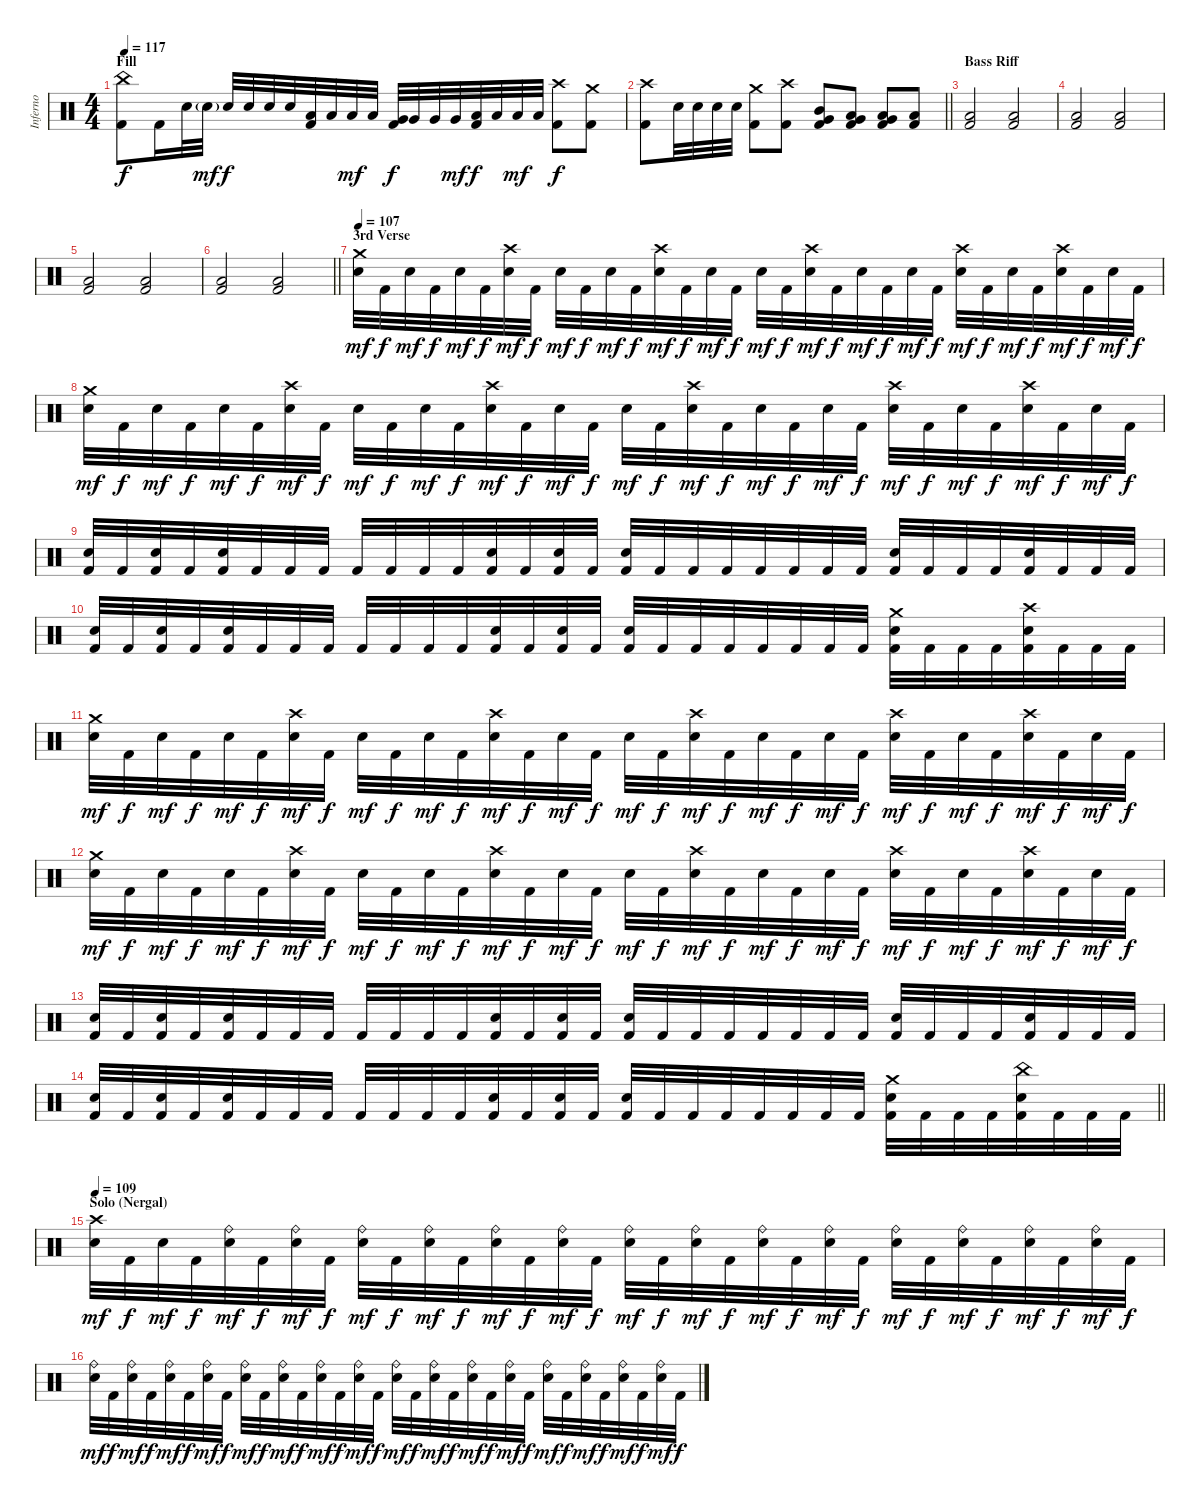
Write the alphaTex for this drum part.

\track ("Inferno" "Inferno") {instrument percussion}
\staff {score}
\articulation defaults
\ts (4 4)
\section ("" "Fill")
\tempo 117
\clef neutral
\ks c
("China (hit)" "Kick (hit) 2").8{dy f} "Kick (hit) 2".16 "Snare (hit) 2".32 "Snare (hit) 2"{g}.32{dy mf} "Snare (hit) 2".32{dy f} "Snare (hit) 2".32 "Snare (hit) 2".32 "Snare (hit) 2".32 ("Low Tom (hit)" "Kick (hit) 2").32 "Low Tom (hit)".32 "Low Tom (hit)".32{dy mf} "Low Tom (hit)".32 ("Very Low Tom (hit)" "Kick (hit) 2").32{dy f} "Very Low Tom (hit)".32 "Very Low Tom (hit)".32 "Very Low Tom (hit)".32{dy mf} ("Low Floor Tom (hit)" "Kick (hit) 2").32{dy f} "Low Floor Tom (hit)".32 "Low Floor Tom (hit)".32{dy mf} "Low Floor Tom (hit)".32 ("Crash high (hit)" "Kick (hit) 2").8{dy f} ("Crash medium (hit)" "Kick (hit) 2").8 |
\barLineRight lightlight
("Crash high (hit)" "Kick (hit) 2").8 "Snare (hit) 2".32 "Snare (hit) 2".32 "Snare (hit) 2".32 "Snare (hit) 2".32 ("Crash medium (hit)" "Kick (hit) 2").8 ("Crash high (hit)" "Kick (hit) 2").8 ("Mid Tom (hit)" "Very Low Tom (hit)" "Kick (hit) 2").8 ("Low Tom (hit)" "Very Low Tom (hit)" "Kick (hit) 2").8 ("Very Low Tom (hit)" "Low Floor Tom (hit)" "Kick (hit) 2").8 ("Low Floor Tom (hit)" "Kick (hit) 2").8 |
\section ("" "Bass Riff")
("Low Floor Tom (hit)" "Kick (hit) 2").2 ("Low Floor Tom (hit)" "Kick (hit) 2").2 |
("Low Floor Tom (hit)" "Kick (hit) 2").2 ("Low Floor Tom (hit)" "Kick (hit) 2").2 |
("Low Floor Tom (hit)" "Kick (hit) 2").2 ("Low Floor Tom (hit)" "Kick (hit) 2").2 |
\barLineRight lightlight
("Low Floor Tom (hit)" "Kick (hit) 2").2 ("Low Floor Tom (hit)" "Kick (hit) 2").2 |
\section ("" "3rd Verse")
\tempo 107
("Crash medium (hit)" "Snare (hit) 2").32{dy mf} "Kick (hit) 2".32{dy f} "Snare (hit) 2".32{dy mf} "Kick (hit) 2".32{dy f} "Snare (hit) 2".32{dy mf} "Kick (hit) 2".32{dy f} ("Crash high (hit)" "Snare (hit) 2").32{dy mf} "Kick (hit) 2".32{dy f} "Snare (hit) 2".32{dy mf} "Kick (hit) 2".32{dy f} "Snare (hit) 2".32{dy mf} "Kick (hit) 2".32{dy f} ("Crash high (hit)" "Snare (hit) 2").32{dy mf} "Kick (hit) 2".32{dy f} "Snare (hit) 2".32{dy mf} "Kick (hit) 2".32{dy f} "Snare (hit) 2".32{dy mf} "Kick (hit) 2".32{dy f} ("Crash high (hit)" "Snare (hit) 2").32{dy mf} "Kick (hit) 2".32{dy f} "Snare (hit) 2".32{dy mf} "Kick (hit) 2".32{dy f} "Snare (hit) 2".32{dy mf} "Kick (hit) 2".32{dy f} ("Crash high (hit)" "Snare (hit) 2").32{dy mf} "Kick (hit) 2".32{dy f} "Snare (hit) 2".32{dy mf} "Kick (hit) 2".32{dy f} ("Crash high (hit)" "Snare (hit) 2").32{dy mf} "Kick (hit) 2".32{dy f} "Snare (hit) 2".32{dy mf} "Kick (hit) 2".32{dy f} |
("Crash medium (hit)" "Snare (hit) 2").32{dy mf} "Kick (hit) 2".32{dy f} "Snare (hit) 2".32{dy mf} "Kick (hit) 2".32{dy f} "Snare (hit) 2".32{dy mf} "Kick (hit) 2".32{dy f} ("Crash high (hit)" "Snare (hit) 2").32{dy mf} "Kick (hit) 2".32{dy f} "Snare (hit) 2".32{dy mf} "Kick (hit) 2".32{dy f} "Snare (hit) 2".32{dy mf} "Kick (hit) 2".32{dy f} ("Crash high (hit)" "Snare (hit) 2").32{dy mf} "Kick (hit) 2".32{dy f} "Snare (hit) 2".32{dy mf} "Kick (hit) 2".32{dy f} "Snare (hit) 2".32{dy mf} "Kick (hit) 2".32{dy f} ("Crash high (hit)" "Snare (hit) 2").32{dy mf} "Kick (hit) 2".32{dy f} "Snare (hit) 2".32{dy mf} "Kick (hit) 2".32{dy f} "Snare (hit) 2".32{dy mf} "Kick (hit) 2".32{dy f} ("Crash high (hit)" "Snare (hit) 2").32{dy mf} "Kick (hit) 2".32{dy f} "Snare (hit) 2".32{dy mf} "Kick (hit) 2".32{dy f} ("Crash high (hit)" "Snare (hit) 2").32{dy mf} "Kick (hit) 2".32{dy f} "Snare (hit) 2".32{dy mf} "Kick (hit) 2".32{dy f} |
("Snare (hit) 2" "Kick (hit) 2").32 "Kick (hit) 2".32 ("Snare (hit) 2" "Kick (hit) 2").32 "Kick (hit) 2".32 ("Snare (hit) 2" "Kick (hit) 2").32 "Kick (hit) 2".32 "Kick (hit) 2".32 "Kick (hit) 2".32 "Kick (hit) 2".32 "Kick (hit) 2".32 "Kick (hit) 2".32 "Kick (hit) 2".32 ("Snare (hit) 2" "Kick (hit) 2").32 "Kick (hit) 2".32 ("Snare (hit) 2" "Kick (hit) 2").32 "Kick (hit) 2".32 ("Snare (hit) 2" "Kick (hit) 2").32 "Kick (hit) 2".32 "Kick (hit) 2".32 "Kick (hit) 2".32 "Kick (hit) 2".32 "Kick (hit) 2".32 "Kick (hit) 2".32 "Kick (hit) 2".32 ("Snare (hit) 2" "Kick (hit) 2").32 "Kick (hit) 2".32 "Kick (hit) 2".32 "Kick (hit) 2".32 ("Snare (hit) 2" "Kick (hit) 2").32 "Kick (hit) 2".32 "Kick (hit) 2".32 "Kick (hit) 2".32 |
("Snare (hit) 2" "Kick (hit) 2").32 "Kick (hit) 2".32 ("Snare (hit) 2" "Kick (hit) 2").32 "Kick (hit) 2".32 ("Snare (hit) 2" "Kick (hit) 2").32 "Kick (hit) 2".32 "Kick (hit) 2".32 "Kick (hit) 2".32 "Kick (hit) 2".32 "Kick (hit) 2".32 "Kick (hit) 2".32 "Kick (hit) 2".32 ("Snare (hit) 2" "Kick (hit) 2").32 "Kick (hit) 2".32 ("Snare (hit) 2" "Kick (hit) 2").32 "Kick (hit) 2".32 ("Snare (hit) 2" "Kick (hit) 2").32 "Kick (hit) 2".32 "Kick (hit) 2".32 "Kick (hit) 2".32 "Kick (hit) 2".32 "Kick (hit) 2".32 "Kick (hit) 2".32 "Kick (hit) 2".32 ("Crash medium (hit)" "Snare (hit) 2" "Kick (hit) 2").32 "Kick (hit) 2".32 "Kick (hit) 2".32 "Kick (hit) 2".32 ("Crash high (hit)" "Snare (hit) 2" "Kick (hit) 2").32 "Kick (hit) 2".32 "Kick (hit) 2".32 "Kick (hit) 2".32 |
("Crash medium (hit)" "Snare (hit) 2").32{dy mf} "Kick (hit) 2".32{dy f} "Snare (hit) 2".32{dy mf} "Kick (hit) 2".32{dy f} "Snare (hit) 2".32{dy mf} "Kick (hit) 2".32{dy f} ("Crash high (hit)" "Snare (hit) 2").32{dy mf} "Kick (hit) 2".32{dy f} "Snare (hit) 2".32{dy mf} "Kick (hit) 2".32{dy f} "Snare (hit) 2".32{dy mf} "Kick (hit) 2".32{dy f} ("Crash high (hit)" "Snare (hit) 2").32{dy mf} "Kick (hit) 2".32{dy f} "Snare (hit) 2".32{dy mf} "Kick (hit) 2".32{dy f} "Snare (hit) 2".32{dy mf} "Kick (hit) 2".32{dy f} ("Crash high (hit)" "Snare (hit) 2").32{dy mf} "Kick (hit) 2".32{dy f} "Snare (hit) 2".32{dy mf} "Kick (hit) 2".32{dy f} "Snare (hit) 2".32{dy mf} "Kick (hit) 2".32{dy f} ("Crash high (hit)" "Snare (hit) 2").32{dy mf} "Kick (hit) 2".32{dy f} "Snare (hit) 2".32{dy mf} "Kick (hit) 2".32{dy f} ("Crash high (hit)" "Snare (hit) 2").32{dy mf} "Kick (hit) 2".32{dy f} "Snare (hit) 2".32{dy mf} "Kick (hit) 2".32{dy f} |
("Crash medium (hit)" "Snare (hit) 2").32{dy mf} "Kick (hit) 2".32{dy f} "Snare (hit) 2".32{dy mf} "Kick (hit) 2".32{dy f} "Snare (hit) 2".32{dy mf} "Kick (hit) 2".32{dy f} ("Crash high (hit)" "Snare (hit) 2").32{dy mf} "Kick (hit) 2".32{dy f} "Snare (hit) 2".32{dy mf} "Kick (hit) 2".32{dy f} "Snare (hit) 2".32{dy mf} "Kick (hit) 2".32{dy f} ("Crash high (hit)" "Snare (hit) 2").32{dy mf} "Kick (hit) 2".32{dy f} "Snare (hit) 2".32{dy mf} "Kick (hit) 2".32{dy f} "Snare (hit) 2".32{dy mf} "Kick (hit) 2".32{dy f} ("Crash high (hit)" "Snare (hit) 2").32{dy mf} "Kick (hit) 2".32{dy f} "Snare (hit) 2".32{dy mf} "Kick (hit) 2".32{dy f} "Snare (hit) 2".32{dy mf} "Kick (hit) 2".32{dy f} ("Crash high (hit)" "Snare (hit) 2").32{dy mf} "Kick (hit) 2".32{dy f} "Snare (hit) 2".32{dy mf} "Kick (hit) 2".32{dy f} ("Crash high (hit)" "Snare (hit) 2").32{dy mf} "Kick (hit) 2".32{dy f} "Snare (hit) 2".32{dy mf} "Kick (hit) 2".32{dy f} |
("Snare (hit) 2" "Kick (hit) 2").32 "Kick (hit) 2".32 ("Snare (hit) 2" "Kick (hit) 2").32 "Kick (hit) 2".32 ("Snare (hit) 2" "Kick (hit) 2").32 "Kick (hit) 2".32 "Kick (hit) 2".32 "Kick (hit) 2".32 "Kick (hit) 2".32 "Kick (hit) 2".32 "Kick (hit) 2".32 "Kick (hit) 2".32 ("Snare (hit) 2" "Kick (hit) 2").32 "Kick (hit) 2".32 ("Snare (hit) 2" "Kick (hit) 2").32 "Kick (hit) 2".32 ("Snare (hit) 2" "Kick (hit) 2").32 "Kick (hit) 2".32 "Kick (hit) 2".32 "Kick (hit) 2".32 "Kick (hit) 2".32 "Kick (hit) 2".32 "Kick (hit) 2".32 "Kick (hit) 2".32 ("Snare (hit) 2" "Kick (hit) 2").32 "Kick (hit) 2".32 "Kick (hit) 2".32 "Kick (hit) 2".32 ("Snare (hit) 2" "Kick (hit) 2").32 "Kick (hit) 2".32 "Kick (hit) 2".32 "Kick (hit) 2".32 |
\barLineRight lightlight
("Snare (hit) 2" "Kick (hit) 2").32 "Kick (hit) 2".32 ("Snare (hit) 2" "Kick (hit) 2").32 "Kick (hit) 2".32 ("Snare (hit) 2" "Kick (hit) 2").32 "Kick (hit) 2".32 "Kick (hit) 2".32 "Kick (hit) 2".32 "Kick (hit) 2".32 "Kick (hit) 2".32 "Kick (hit) 2".32 "Kick (hit) 2".32 ("Snare (hit) 2" "Kick (hit) 2").32 "Kick (hit) 2".32 ("Snare (hit) 2" "Kick (hit) 2").32 "Kick (hit) 2".32 ("Snare (hit) 2" "Kick (hit) 2").32 "Kick (hit) 2".32 "Kick (hit) 2".32 "Kick (hit) 2".32 "Kick (hit) 2".32 "Kick (hit) 2".32 "Kick (hit) 2".32 "Kick (hit) 2".32 ("Crash medium (hit)" "Snare (hit) 2" "Kick (hit) 2").32 "Kick (hit) 2".32 "Kick (hit) 2".32 "Kick (hit) 2".32 ("China (hit)" "Snare (hit) 2" "Kick (hit) 2").32 "Kick (hit) 2".32 "Kick (hit) 2".32 "Kick (hit) 2".32 |
\section ("" "Solo (Nergal)")
\tempo 109
("Crash high (hit)" "Snare (hit) 2").32{dy mf} "Kick (hit) 2".32{dy f} "Snare (hit) 2".32{dy mf} "Kick (hit) 2".32{dy f} ("Ride (bell)" "Snare (hit) 2").32{dy mf} "Kick (hit) 2".32{dy f} ("Ride (bell)" "Snare (hit) 2").32{dy mf} "Kick (hit) 2".32{dy f} ("Ride (bell)" "Snare (hit) 2").32{dy mf} "Kick (hit) 2".32{dy f} ("Ride (bell)" "Snare (hit) 2").32{dy mf} "Kick (hit) 2".32{dy f} ("Ride (bell)" "Snare (hit) 2").32{dy mf} "Kick (hit) 2".32{dy f} ("Ride (bell)" "Snare (hit) 2").32{dy mf} "Kick (hit) 2".32{dy f} ("Ride (bell)" "Snare (hit) 2").32{dy mf} "Kick (hit) 2".32{dy f} ("Ride (bell)" "Snare (hit) 2").32{dy mf} "Kick (hit) 2".32{dy f} ("Ride (bell)" "Snare (hit) 2").32{dy mf} "Kick (hit) 2".32{dy f} ("Ride (bell)" "Snare (hit) 2").32{dy mf} "Kick (hit) 2".32{dy f} ("Ride (bell)" "Snare (hit) 2").32{dy mf} "Kick (hit) 2".32{dy f} ("Ride (bell)" "Snare (hit) 2").32{dy mf} "Kick (hit) 2".32{dy f} ("Ride (bell)" "Snare (hit) 2").32{dy mf} "Kick (hit) 2".32{dy f} ("Ride (bell)" "Snare (hit) 2").32{dy mf} "Kick (hit) 2".32{dy f} |
("Ride (bell)" "Snare (hit) 2").32{dy mf} "Kick (hit) 2".32{dy f} ("Ride (bell)" "Snare (hit) 2").32{dy mf} "Kick (hit) 2".32{dy f} ("Ride (bell)" "Snare (hit) 2").32{dy mf} "Kick (hit) 2".32{dy f} ("Ride (bell)" "Snare (hit) 2").32{dy mf} "Kick (hit) 2".32{dy f} ("Ride (bell)" "Snare (hit) 2").32{dy mf} "Kick (hit) 2".32{dy f} ("Ride (bell)" "Snare (hit) 2").32{dy mf} "Kick (hit) 2".32{dy f} ("Ride (bell)" "Snare (hit) 2").32{dy mf} "Kick (hit) 2".32{dy f} ("Ride (bell)" "Snare (hit) 2").32{dy mf} "Kick (hit) 2".32{dy f} ("Ride (bell)" "Snare (hit) 2").32{dy mf} "Kick (hit) 2".32{dy f} ("Ride (bell)" "Snare (hit) 2").32{dy mf} "Kick (hit) 2".32{dy f} ("Ride (bell)" "Snare (hit) 2").32{dy mf} "Kick (hit) 2".32{dy f} ("Ride (bell)" "Snare (hit) 2").32{dy mf} "Kick (hit) 2".32{dy f} ("Ride (bell)" "Snare (hit) 2").32{dy mf} "Kick (hit) 2".32{dy f} ("Ride (bell)" "Snare (hit) 2").32{dy mf} "Kick (hit) 2".32{dy f} ("Ride (bell)" "Snare (hit) 2").32{dy mf} "Kick (hit) 2".32{dy f} ("Ride (bell)" "Snare (hit) 2").32{dy mf} "Kick (hit) 2".32{dy f}
